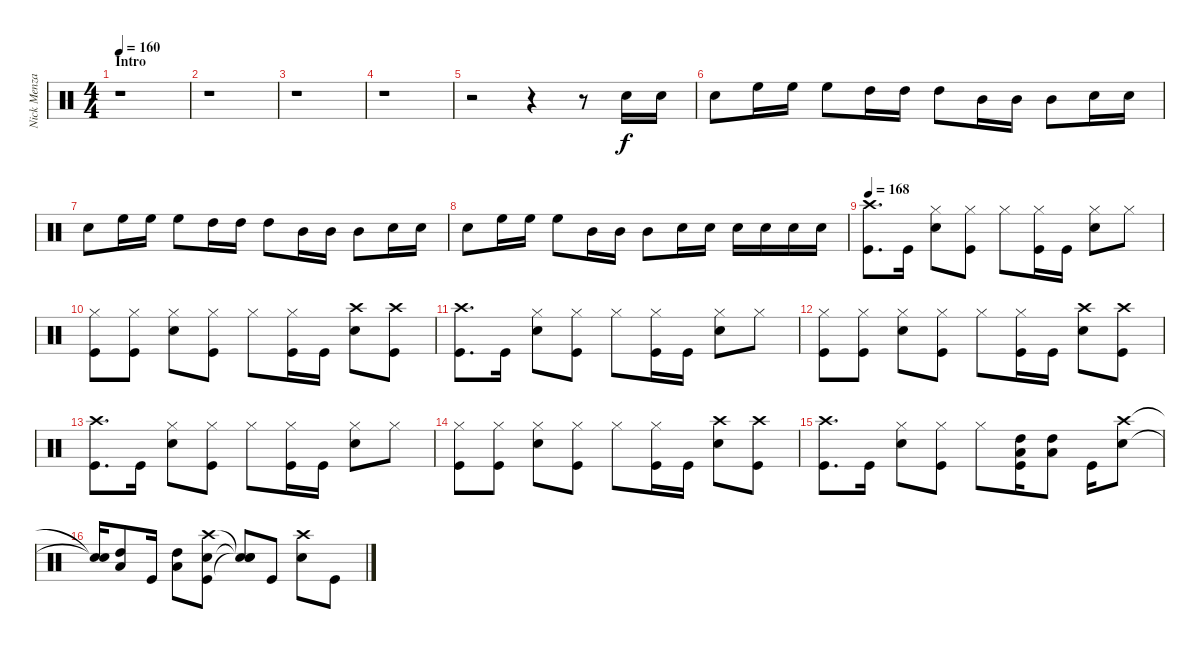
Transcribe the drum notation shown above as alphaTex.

\track ("Nick Menza" "Nick Menza") {instrument percussion}
\staff {score}
\articulation defaults
\ts (4 4)
\section ("" "Intro")
\tempo 160
\clef neutral
\ks c
r.1{dy f} |
r.1 |
r.1 |
r.1 |
r.2 r.4 r.8 "Snare (hit) 2".16 "Snare (hit) 2".16 |
"Snare (hit) 2".8 "High Floor Tom (hit)".16 "High Floor Tom (hit)".16 "High Floor Tom (hit)".8 "High Tom (hit)".16 "High Tom (hit)".16 "High Tom (hit)".8 "Mid Tom (hit)".16 "Mid Tom (hit)".16 "Mid Tom (hit)".8 "Snare (hit) 2".16 "Snare (hit) 2".16 |
"Snare (hit) 2".8 "High Floor Tom (hit)".16 "High Floor Tom (hit)".16 "High Floor Tom (hit)".8 "High Tom (hit)".16 "High Tom (hit)".16 "High Tom (hit)".8 "Mid Tom (hit)".16 "Mid Tom (hit)".16 "Mid Tom (hit)".8 "Snare (hit) 2".16 "Snare (hit) 2".16 |
"Snare (hit) 2".8 "High Floor Tom (hit)".16 "High Floor Tom (hit)".16 "High Floor Tom (hit)".8 "Mid Tom (hit)".16 "Mid Tom (hit)".16 "Mid Tom (hit)".8 "Snare (hit) 2".16 "Snare (hit) 2".16 "Snare (hit) 2".16 "Snare (hit) 2".16 "Snare (hit) 2".16 "Snare (hit) 2".16 |
\tempo 168
("Kick (hit)" "Crash high (hit)").8{d} "Kick (hit)".16 ("Hi-Hat (closed)" "Snare (hit) 2").8 ("Kick (hit)" "Hi-Hat (closed)").8 "Hi-Hat (closed)".8 ("Kick (hit)" "Hi-Hat (closed)").16 "Kick (hit)".16 ("Hi-Hat (closed)" "Snare (hit) 2").8 "Hi-Hat (closed)".8 |
("Kick (hit)" "Hi-Hat (closed)").8 ("Kick (hit)" "Hi-Hat (closed)").8 ("Hi-Hat (closed)" "Snare (hit) 2").8 ("Kick (hit)" "Hi-Hat (closed)").8 "Hi-Hat (closed)".8 ("Kick (hit)" "Hi-Hat (closed)").16 "Kick (hit)".16 ("Crash high (hit)" "Snare (hit) 2").8 ("Kick (hit)" "Crash high (hit)").8 |
("Kick (hit)" "Crash high (hit)").8{d} "Kick (hit)".16 ("Hi-Hat (closed)" "Snare (hit) 2").8 ("Kick (hit)" "Hi-Hat (closed)").8 "Hi-Hat (closed)".8 ("Kick (hit)" "Hi-Hat (closed)").16 "Kick (hit)".16 ("Hi-Hat (closed)" "Snare (hit) 2").8 "Hi-Hat (closed)".8 |
("Kick (hit)" "Hi-Hat (closed)").8 ("Kick (hit)" "Hi-Hat (closed)").8 ("Hi-Hat (closed)" "Snare (hit) 2").8 ("Kick (hit)" "Hi-Hat (closed)").8 "Hi-Hat (closed)".8 ("Kick (hit)" "Hi-Hat (closed)").16 "Kick (hit)".16 ("Crash high (hit)" "Snare (hit) 2").8 ("Kick (hit)" "Crash high (hit)").8 |
("Kick (hit)" "Crash high (hit)").8{d} "Kick (hit)".16 ("Hi-Hat (closed)" "Snare (hit) 2").8 ("Kick (hit)" "Hi-Hat (closed)").8 "Hi-Hat (closed)".8 ("Kick (hit)" "Hi-Hat (closed)").16 "Kick (hit)".16 ("Hi-Hat (closed)" "Snare (hit) 2").8 "Hi-Hat (closed)".8 |
("Kick (hit)" "Hi-Hat (closed)").8 ("Kick (hit)" "Hi-Hat (closed)").8 ("Hi-Hat (closed)" "Snare (hit) 2").8 ("Kick (hit)" "Hi-Hat (closed)").8 "Hi-Hat (closed)".8 ("Kick (hit)" "Hi-Hat (closed)").16 "Kick (hit)".16 ("Crash high (hit)" "Snare (hit) 2").8 ("Kick (hit)" "Crash high (hit)").8 |
("Kick (hit)" "Crash high (hit)").8{d} "Kick (hit)".16 ("Hi-Hat (closed)" "Snare (hit) 2").8 ("Kick (hit)" "Hi-Hat (closed)").8 "Hi-Hat (closed)".8 ("Kick (hit)" "Low Tom (hit)" "High Tom (hit)").16 ("Low Tom (hit)" "High Tom (hit)").8 "Kick (hit)".16 ("Crash high (hit)" "Snare (hit) 2").8 |
("Snare (hit)"{t} "Snare (hit)"{t}).16 ("Low Tom (hit)" "High Tom (hit)").8 "Kick (hit)".16 ("Low Tom (hit)" "High Tom (hit)").8 ("Kick (hit)" "Snare (hit) 2" "Crash high (hit)").8 ("Snare (hit)"{t} "Snare (hit)"{t} "Snare (hit)"{t}).8 "Kick (hit)".8 ("Snare (hit) 2" "Crash high (hit)").8 "Kick (hit)".8
